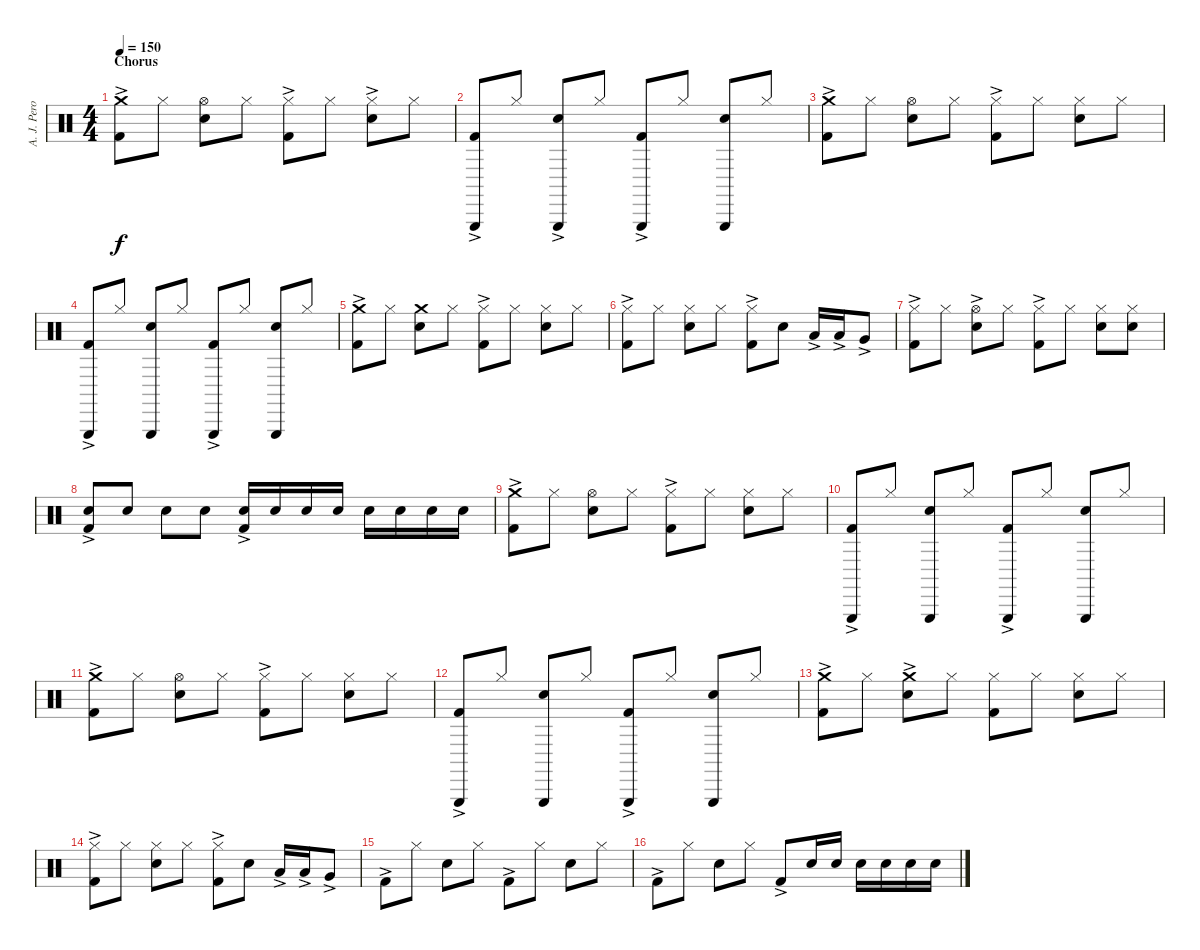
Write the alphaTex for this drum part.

\track ("A. J. Pero - Drums" "A. J. Pero") {instrument percussion}
\staff {score}
\articulation defaults
\ts (4 4)
\section ("" "Chorus")
\tempo 150
\clef neutral
\ks c
("Crash medium (hit)" "Kick (hit) 2"{ac}).8{dy f} "Hi-Hat (closed)".8 ("Hi-Hat (open)" "Electric Snare (hit)").8 "Hi-Hat (closed)".8 ("Hi-Hat (closed)" "Kick (hit) 2"{ac}).8 "Hi-Hat (closed)".8 ("Hi-Hat (closed)" "Electric Snare (hit)"{ac}).8 "Hi-Hat (closed)".8 |
("Triangle (hit)" "Kick (hit) 2"{ac}).8 "Hi-Hat (closed)".8 ("Triangle (hit)" "Electric Snare (hit)"{ac}).8 "Hi-Hat (closed)".8 ("Triangle (hit)" "Kick (hit) 2"{ac}).8 "Hi-Hat (closed)".8 ("Triangle (hit)" "Electric Snare (hit)").8 "Hi-Hat (closed)".8 |
("Crash medium (hit)" "Kick (hit) 2"{ac}).8 "Hi-Hat (closed)".8 ("Hi-Hat (open)" "Electric Snare (hit)").8 "Hi-Hat (closed)".8 ("Hi-Hat (closed)" "Kick (hit) 2"{ac}).8 "Hi-Hat (closed)".8 ("Hi-Hat (closed)" "Electric Snare (hit)").8 "Hi-Hat (closed)".8 |
("Triangle (hit)" "Kick (hit) 2"{ac}).8 "Hi-Hat (closed)".8 ("Triangle (hit)" "Electric Snare (hit)").8 "Hi-Hat (closed)".8 ("Triangle (hit)" "Kick (hit) 2"{ac}).8 "Hi-Hat (closed)".8 ("Triangle (hit)" "Electric Snare (hit)").8 "Hi-Hat (closed)".8 |
("Crash medium (hit)" "Kick (hit) 2"{ac}).8 "Hi-Hat (closed)".8 ("Crash medium (hit)" "Electric Snare (hit)").8 "Hi-Hat (closed)".8 ("Hi-Hat (closed)" "Kick (hit) 2"{ac}).8 "Hi-Hat (closed)".8 ("Hi-Hat (closed)" "Electric Snare (hit)").8 "Hi-Hat (closed)".8 |
("Hi-Hat (closed)" "Kick (hit) 2"{ac}).8 "Hi-Hat (closed)".8 ("Hi-Hat (closed)" "Electric Snare (hit)").8 "Hi-Hat (closed)".8 ("Hi-Hat (closed)" "Kick (hit) 2"{ac}).8 "Electric Snare (hit)".8 "Low Floor Tom (hit)"{ac}.16 "Low Floor Tom (hit)"{ac}.16 "Very Low Tom (hit)"{ac}.8 |
("Hi-Hat (closed)" "Kick (hit) 2"{ac}).8 "Hi-Hat (closed)".8 ("Hi-Hat (open)" "Electric Snare (hit)"{ac}).8 "Hi-Hat (closed)".8 ("Hi-Hat (closed)" "Kick (hit) 2"{ac}).8 "Hi-Hat (closed)".8 ("Hi-Hat (closed)" "Electric Snare (hit)").8 ("Hi-Hat (closed)" "Electric Snare (hit)").8 |
("Electric Snare (hit)" "Kick (hit) 2"{ac}).8 "Electric Snare (hit)".8 "Electric Snare (hit)".8 "Electric Snare (hit)".8 ("Electric Snare (hit)" "Kick (hit) 2"{ac}).16 "Electric Snare (hit)".16 "Electric Snare (hit)".16 "Electric Snare (hit)".16 "Electric Snare (hit)".16 "Electric Snare (hit)".16 "Electric Snare (hit)".16 "Electric Snare (hit)".16 |
("Crash medium (hit)" "Kick (hit) 2"{ac}).8 "Hi-Hat (closed)".8 ("Hi-Hat (open)" "Electric Snare (hit)").8 "Hi-Hat (closed)".8 ("Hi-Hat (closed)" "Kick (hit) 2"{ac}).8 "Hi-Hat (closed)".8 ("Hi-Hat (closed)" "Electric Snare (hit)").8 "Hi-Hat (closed)".8 |
("Triangle (hit)" "Kick (hit) 2"{ac}).8 "Hi-Hat (closed)".8 ("Triangle (hit)" "Electric Snare (hit)").8 "Hi-Hat (closed)".8 ("Triangle (hit)" "Kick (hit) 2"{ac}).8 "Hi-Hat (closed)".8 ("Triangle (hit)" "Electric Snare (hit)").8 "Hi-Hat (closed)".8 |
("Crash medium (hit)" "Kick (hit) 2"{ac}).8 "Hi-Hat (closed)".8 ("Hi-Hat (open)" "Electric Snare (hit)").8 "Hi-Hat (closed)".8 ("Hi-Hat (closed)" "Kick (hit) 2"{ac}).8 "Hi-Hat (closed)".8 ("Hi-Hat (closed)" "Electric Snare (hit)").8 "Hi-Hat (closed)".8 |
("Triangle (hit)" "Kick (hit) 2"{ac}).8 "Hi-Hat (closed)".8 ("Triangle (hit)" "Electric Snare (hit)").8 "Hi-Hat (closed)".8 ("Triangle (hit)" "Kick (hit) 2"{ac}).8 "Hi-Hat (closed)".8 ("Triangle (hit)" "Electric Snare (hit)").8 "Hi-Hat (closed)".8 |
("Crash medium (hit)" "Kick (hit) 2"{ac}).8 "Hi-Hat (closed)".8 ("Crash medium (hit)" "Electric Snare (hit)"{ac}).8 "Hi-Hat (closed)".8 ("Hi-Hat (closed)" "Kick (hit) 2").8 "Hi-Hat (closed)".8 ("Hi-Hat (closed)" "Electric Snare (hit)").8 "Hi-Hat (closed)".8 |
("Hi-Hat (closed)" "Kick (hit) 2"{ac}).8 "Hi-Hat (closed)".8 ("Hi-Hat (closed)" "Electric Snare (hit)").8 "Hi-Hat (closed)".8 ("Hi-Hat (closed)" "Kick (hit) 2"{ac}).8 "Electric Snare (hit)".8 "Low Floor Tom (hit)"{ac}.16 "Low Floor Tom (hit)"{ac}.16 "Very Low Tom (hit)"{ac}.8 |
"Kick (hit) 2"{ac}.8 "Hi-Hat (closed)".8 "Electric Snare (hit)".8 "Hi-Hat (closed)".8 "Kick (hit) 2"{ac}.8 "Hi-Hat (closed)".8 "Electric Snare (hit)".8 "Hi-Hat (closed)".8 |
"Kick (hit) 2"{ac}.8 "Hi-Hat (closed)".8 "Electric Snare (hit)".8 "Hi-Hat (closed)".8 "Kick (hit) 2"{ac}.8 "Electric Snare (hit)".16 "Electric Snare (hit)".16 "Electric Snare (hit)".16 "Electric Snare (hit)".16 "Electric Snare (hit)".16 "Electric Snare (hit)".16
